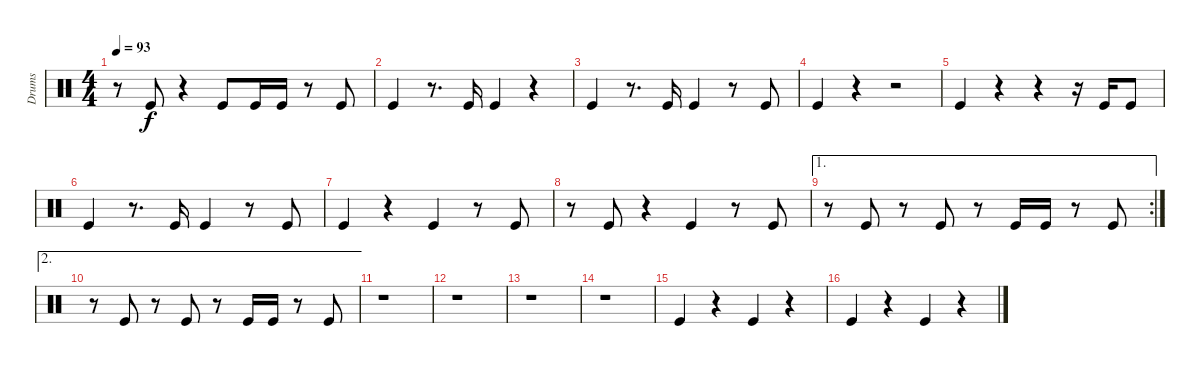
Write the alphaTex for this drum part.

\track ("Drums" "Drums") {instrument percussion}
\staff {score}
\articulation defaults
\ts (4 4)
\tempo 93
\clef neutral
\ks c
r.8{dy f} "Kick (hit)".8 r.4 "Kick (hit)".8 "Kick (hit)".16 "Kick (hit)".16 r.8 "Kick (hit)".8 |
"Kick (hit)".4 r.8{d} "Kick (hit)".16 "Kick (hit)".4 r.4 |
"Kick (hit)".4 r.8{d} "Kick (hit)".16 "Kick (hit)".4 r.8 "Kick (hit)".8 |
"Kick (hit)".4 r.4 r.2 |
"Kick (hit)".4 r.4 r.4 r.16 "Kick (hit)".16 "Kick (hit)".8 |
"Kick (hit)".4 r.8{d} "Kick (hit)".16 "Kick (hit)".4 r.8 "Kick (hit)".8 |
"Kick (hit)".4 r.4 "Kick (hit)".4 r.8 "Kick (hit)".8 |
r.8 "Kick (hit)".8 r.4 "Kick (hit)".4 r.8 "Kick (hit)".8 |
\ae 1
\rc 2
r.8 "Kick (hit)".8 r.8 "Kick (hit)".8 r.8 "Kick (hit)".16 "Kick (hit)".16 r.8 "Kick (hit)".8 |
\ae 2
r.8 "Kick (hit)".8 r.8 "Kick (hit)".8 r.8 "Kick (hit)".16 "Kick (hit)".16 r.8 "Kick (hit)".8 |
r.1 |
r.1 |
r.1 |
r.1 |
"Kick (hit)".4 r.4 "Kick (hit)".4 r.4 |
"Kick (hit)".4 r.4 "Kick (hit)".4 r.4
